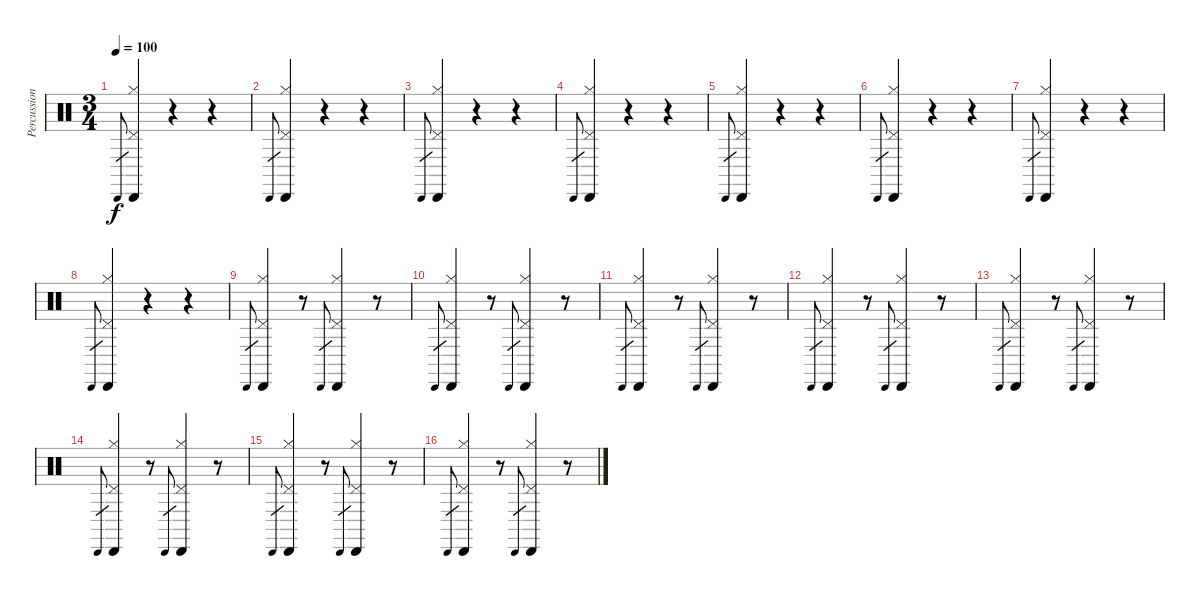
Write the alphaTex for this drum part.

\track ("Percussion" "Percussion") {instrument percussion}
\staff {score}
\articulation defaults
\ts (3 4)
\tempo 100
\clef neutral
\ks c "Cabasa (hit)".8{gr dy f}
("Pedal Hi-Hat (hit)" "Cabasa (hit)" "Hi-Hat (closed)").4 r.4 r.4 |
"Cabasa (hit)".8{gr} ("Pedal Hi-Hat (hit)" "Cabasa (hit)" "Hi-Hat (closed)").4 r.4 r.4 |
"Cabasa (hit)".8{gr} ("Pedal Hi-Hat (hit)" "Cabasa (hit)" "Hi-Hat (closed)").4 r.4 r.4 |
"Cabasa (hit)".8{gr} ("Pedal Hi-Hat (hit)" "Cabasa (hit)" "Hi-Hat (closed)").4 r.4 r.4 |
"Cabasa (hit)".8{gr} ("Pedal Hi-Hat (hit)" "Cabasa (hit)" "Hi-Hat (closed)").4 r.4 r.4 |
"Cabasa (hit)".8{gr} ("Pedal Hi-Hat (hit)" "Cabasa (hit)" "Hi-Hat (closed)").4 r.4 r.4 |
"Cabasa (hit)".8{gr} ("Pedal Hi-Hat (hit)" "Cabasa (hit)" "Hi-Hat (closed)").4 r.4 r.4 |
"Cabasa (hit)".8{gr} ("Pedal Hi-Hat (hit)" "Cabasa (hit)" "Hi-Hat (closed)").4 r.4 r.4 |
"Cabasa (hit)".8{gr} ("Pedal Hi-Hat (hit)" "Cabasa (hit)" "Hi-Hat (closed)").4 r.8 "Cabasa (hit)".8{gr} ("Pedal Hi-Hat (hit)" "Cabasa (hit)" "Hi-Hat (closed)").4 r.8 |
"Cabasa (hit)".8{gr} ("Pedal Hi-Hat (hit)" "Cabasa (hit)" "Hi-Hat (closed)").4 r.8 "Cabasa (hit)".8{gr} ("Pedal Hi-Hat (hit)" "Cabasa (hit)" "Hi-Hat (closed)").4 r.8 |
"Cabasa (hit)".8{gr} ("Pedal Hi-Hat (hit)" "Cabasa (hit)" "Hi-Hat (closed)").4 r.8 "Cabasa (hit)".8{gr} ("Pedal Hi-Hat (hit)" "Cabasa (hit)" "Hi-Hat (closed)").4 r.8 |
"Cabasa (hit)".8{gr} ("Pedal Hi-Hat (hit)" "Cabasa (hit)" "Hi-Hat (closed)").4 r.8 "Cabasa (hit)".8{gr} ("Pedal Hi-Hat (hit)" "Cabasa (hit)" "Hi-Hat (closed)").4 r.8 |
"Cabasa (hit)".8{gr} ("Pedal Hi-Hat (hit)" "Cabasa (hit)" "Hi-Hat (closed)").4 r.8 "Cabasa (hit)".8{gr} ("Pedal Hi-Hat (hit)" "Cabasa (hit)" "Hi-Hat (closed)").4 r.8 |
"Cabasa (hit)".8{gr} ("Pedal Hi-Hat (hit)" "Cabasa (hit)" "Hi-Hat (closed)").4 r.8 "Cabasa (hit)".8{gr} ("Pedal Hi-Hat (hit)" "Cabasa (hit)" "Hi-Hat (closed)").4 r.8 |
"Cabasa (hit)".8{gr} ("Pedal Hi-Hat (hit)" "Cabasa (hit)" "Hi-Hat (closed)").4 r.8 "Cabasa (hit)".8{gr} ("Pedal Hi-Hat (hit)" "Cabasa (hit)" "Hi-Hat (closed)").4 r.8 |
"Cabasa (hit)".8{gr} ("Pedal Hi-Hat (hit)" "Cabasa (hit)" "Hi-Hat (closed)").4 r.8 "Cabasa (hit)".8{gr} ("Pedal Hi-Hat (hit)" "Cabasa (hit)" "Hi-Hat (closed)").4 r.8
